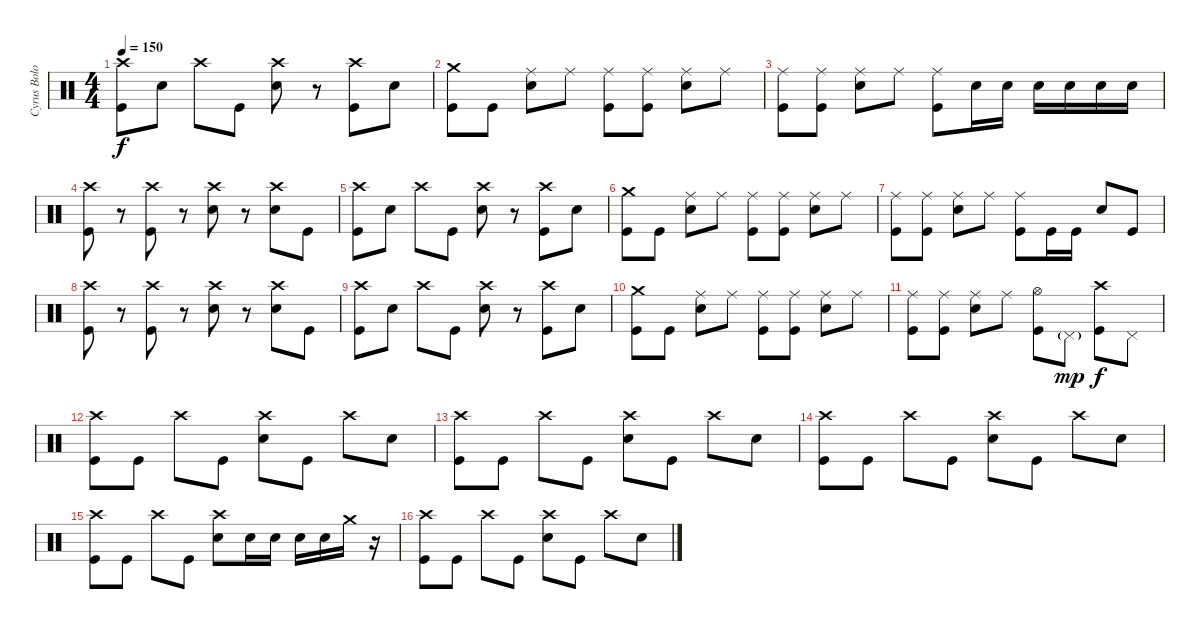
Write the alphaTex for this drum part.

\track ("Cyrus Bolooki - Drums" "Cyrus Bolo") {instrument percussion}
\staff {score}
\articulation defaults
\ts (4 4)
\tempo 150
\clef neutral
\ks c
("Crash high (hit)" "Kick (hit)").8{dy f} "Electric Snare (hit)".8 "Crash high (hit)".8 "Kick (hit)".8 ("Crash high (hit)" "Electric Snare (hit)").8 r.8 ("Crash high (hit)" "Kick (hit)").8 "Electric Snare (hit)".8 |
("Crash medium (hit)" "Kick (hit)").8 "Kick (hit)".8 ("Ride (middle)" "Electric Snare (hit)").8 "Ride (middle)".8 ("Ride (middle)" "Kick (hit)").8 ("Ride (middle)" "Kick (hit)").8 ("Ride (middle)" "Electric Snare (hit)").8 "Ride (middle)".8 |
("Ride (middle)" "Kick (hit)").8 ("Ride (middle)" "Kick (hit)").8 ("Ride (middle)" "Electric Snare (hit)").8 "Ride (middle)".8 ("Ride (middle)" "Kick (hit)").8 "Electric Snare (hit)".16 "Electric Snare (hit)".16 "Electric Snare (hit)".16 "Electric Snare (hit)".16 "Electric Snare (hit)".16 "Electric Snare (hit)".16 |
("Crash high (hit)" "Kick (hit)").8 r.8 ("Crash high (hit)" "Kick (hit)").8 r.8 ("Crash high (hit)" "Electric Snare (hit)").8 r.8 ("Crash high (hit)" "Electric Snare (hit)").8 "Kick (hit)".8 |
("Crash high (hit)" "Kick (hit)").8 "Electric Snare (hit)".8 "Crash high (hit)".8 "Kick (hit)".8 ("Crash high (hit)" "Electric Snare (hit)").8 r.8 ("Crash high (hit)" "Kick (hit)").8 "Electric Snare (hit)".8 |
("Crash medium (hit)" "Kick (hit)").8 "Kick (hit)".8 ("Ride (middle)" "Electric Snare (hit)").8 "Ride (middle)".8 ("Ride (middle)" "Kick (hit)").8 ("Ride (middle)" "Kick (hit)").8 ("Ride (middle)" "Electric Snare (hit)").8 "Ride (middle)".8 |
("Ride (middle)" "Kick (hit)").8 ("Ride (middle)" "Kick (hit)").8 ("Ride (middle)" "Electric Snare (hit)").8 "Ride (middle)".8 ("Ride (middle)" "Kick (hit)").8 "Kick (hit)".16 "Kick (hit)".16 "Electric Snare (hit)".8 "Kick (hit)".8 |
("Crash high (hit)" "Kick (hit)").8 r.8 ("Crash high (hit)" "Kick (hit)").8 r.8 ("Crash high (hit)" "Electric Snare (hit)").8 r.8 ("Crash high (hit)" "Electric Snare (hit)").8 "Kick (hit)".8 |
("Crash high (hit)" "Kick (hit)").8 "Electric Snare (hit)".8 "Crash high (hit)".8 "Kick (hit)".8 ("Crash high (hit)" "Electric Snare (hit)").8 r.8 ("Crash high (hit)" "Kick (hit)").8 "Electric Snare (hit)".8 |
("Crash medium (hit)" "Kick (hit)").8 "Kick (hit)".8 ("Ride (middle)" "Electric Snare (hit)").8 "Ride (middle)".8 ("Ride (middle)" "Kick (hit)").8 ("Ride (middle)" "Kick (hit)").8 ("Ride (middle)" "Electric Snare (hit)").8 "Ride (middle)".8 |
("Ride (middle)" "Kick (hit)").8 ("Ride (middle)" "Kick (hit)").8 ("Ride (middle)" "Electric Snare (hit)").8 "Ride (middle)".8 ("Hi-Hat (open)" "Kick (hit)").8 "Pedal Hi-Hat (hit)"{g}.8{dy mp} ("Crash high (hit)" "Kick (hit)").8{dy f} "Pedal Hi-Hat (hit)".8 |
("Crash high (hit)" "Kick (hit)").8 "Kick (hit)".8 "Crash high (hit)".8 "Kick (hit)".8 ("Crash high (hit)" "Electric Snare (hit)").8 "Kick (hit)".8 "Crash high (hit)".8 "Electric Snare (hit)".8 |
("Crash high (hit)" "Kick (hit)").8 "Kick (hit)".8 "Crash high (hit)".8 "Kick (hit)".8 ("Crash high (hit)" "Electric Snare (hit)").8 "Kick (hit)".8 "Crash high (hit)".8 "Electric Snare (hit)".8 |
("Crash high (hit)" "Kick (hit)").8 "Kick (hit)".8 "Crash high (hit)".8 "Kick (hit)".8 ("Crash high (hit)" "Electric Snare (hit)").8 "Kick (hit)".8 "Crash high (hit)".8 "Electric Snare (hit)".8 |
("Crash high (hit)" "Kick (hit)").8 "Kick (hit)".8 "Crash high (hit)".8 "Kick (hit)".8 ("Crash high (hit)" "Electric Snare (hit)").8 "Electric Snare (hit)".16 "Electric Snare (hit)".16 "Electric Snare (hit)".16 "Electric Snare (hit)".16 "Crash medium (hit)".16 r.16 |
("Crash high (hit)" "Kick (hit)").8 "Kick (hit)".8 "Crash high (hit)".8 "Kick (hit)".8 ("Crash high (hit)" "Electric Snare (hit)").8 "Kick (hit)".8 "Crash high (hit)".8 "Electric Snare (hit)".8
